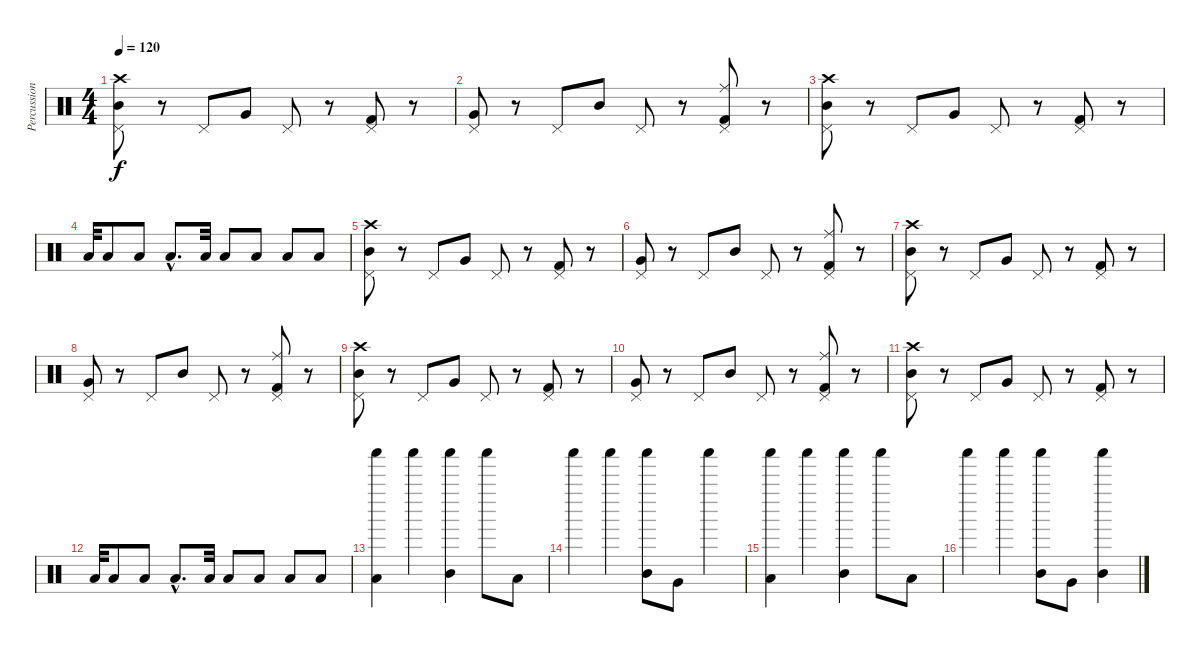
\track ("Percussion" "Percussion") {instrument percussion}
\staff {score}
\articulation defaults
\ts (4 4)
\tempo 120
\clef neutral
\ks c
("Crash high (hit)" "Mid Tom (hit)" "Pedal Hi-Hat (hit)").8{dy f} r.8 "Pedal Hi-Hat (hit)".8 "Very Low Tom (hit)".8 "Pedal Hi-Hat (hit)".8 r.8 ("Kick (hit) 2" "Pedal Hi-Hat (hit)").8 r.8 |
("Very Low Tom (hit)" "Pedal Hi-Hat (hit)").8 r.8 "Pedal Hi-Hat (hit)".8 "Mid Tom (hit)".8 "Pedal Hi-Hat (hit)".8 r.8 ("Ride (middle)" "Kick (hit) 2" "Pedal Hi-Hat (hit)").8 r.8 |
("Crash high (hit)" "Mid Tom (hit)" "Pedal Hi-Hat (hit)").8 r.8 "Pedal Hi-Hat (hit)".8 "Very Low Tom (hit)".8 "Pedal Hi-Hat (hit)".8 r.8 ("Kick (hit) 2" "Pedal Hi-Hat (hit)").8 r.8 |
"Low Tom (hit)".32 "Low Tom (hit)".8 "Low Tom (hit)".8 "Low Tom (hit)"{hac}.8{d} "Low Tom (hit)".32 "Low Tom (hit)".8 "Low Tom (hit)".8 "Low Tom (hit)".8 "Low Tom (hit)".8 |
("Crash high (hit)" "Mid Tom (hit)" "Pedal Hi-Hat (hit)").8 r.8 "Pedal Hi-Hat (hit)".8 "Very Low Tom (hit)".8 "Pedal Hi-Hat (hit)".8 r.8 ("Kick (hit) 2" "Pedal Hi-Hat (hit)").8 r.8 |
("Very Low Tom (hit)" "Pedal Hi-Hat (hit)").8 r.8 "Pedal Hi-Hat (hit)".8 "Mid Tom (hit)".8 "Pedal Hi-Hat (hit)".8 r.8 ("Ride (middle)" "Kick (hit) 2" "Pedal Hi-Hat (hit)").8 r.8 |
("Crash high (hit)" "Mid Tom (hit)" "Pedal Hi-Hat (hit)").8 r.8 "Pedal Hi-Hat (hit)".8 "Very Low Tom (hit)".8 "Pedal Hi-Hat (hit)".8 r.8 ("Kick (hit) 2" "Pedal Hi-Hat (hit)").8 r.8 |
("Very Low Tom (hit)" "Pedal Hi-Hat (hit)").8 r.8 "Pedal Hi-Hat (hit)".8 "Mid Tom (hit)".8 "Pedal Hi-Hat (hit)".8 r.8 ("Ride (middle)" "Kick (hit) 2" "Pedal Hi-Hat (hit)").8 r.8 |
("Crash high (hit)" "Mid Tom (hit)" "Pedal Hi-Hat (hit)").8 r.8 "Pedal Hi-Hat (hit)".8 "Very Low Tom (hit)".8 "Pedal Hi-Hat (hit)".8 r.8 ("Kick (hit) 2" "Pedal Hi-Hat (hit)").8 r.8 |
("Very Low Tom (hit)" "Pedal Hi-Hat (hit)").8 r.8 "Pedal Hi-Hat (hit)".8 "Mid Tom (hit)".8 "Pedal Hi-Hat (hit)".8 r.8 ("Ride (middle)" "Kick (hit) 2" "Pedal Hi-Hat (hit)").8 r.8 |
("Crash high (hit)" "Mid Tom (hit)" "Pedal Hi-Hat (hit)").8 r.8 "Pedal Hi-Hat (hit)".8 "Very Low Tom (hit)".8 "Pedal Hi-Hat (hit)".8 r.8 ("Kick (hit) 2" "Pedal Hi-Hat (hit)").8 r.8 |
"Low Tom (hit)".32 "Low Tom (hit)".8 "Low Tom (hit)".8 "Low Tom (hit)"{hac}.8{d} "Low Tom (hit)".32 "Low Tom (hit)".8 "Low Tom (hit)".8 "Low Tom (hit)".8 "Low Tom (hit)".8 |
("Shaker (hit)" "Low Floor Tom (hit)").4 "Shaker (hit)".4 ("Shaker (hit)" "Mid Tom (hit)").4 "Shaker (hit)".8 "Low Floor Tom (hit)".8 |
"Shaker (hit)".4 "Shaker (hit)".4 ("Shaker (hit)" "Mid Tom (hit)").8 "Very Low Tom (hit)".8 "Shaker (hit)".4 |
("Shaker (hit)" "Low Floor Tom (hit)").4 "Shaker (hit)".4 ("Shaker (hit)" "Mid Tom (hit)").4 "Shaker (hit)".8 "Low Floor Tom (hit)".8 |
"Shaker (hit)".4 "Shaker (hit)".4 ("Shaker (hit)" "Mid Tom (hit)").8 "Very Low Tom (hit)".8 ("Shaker (hit)" "Mid Tom (hit)").4
